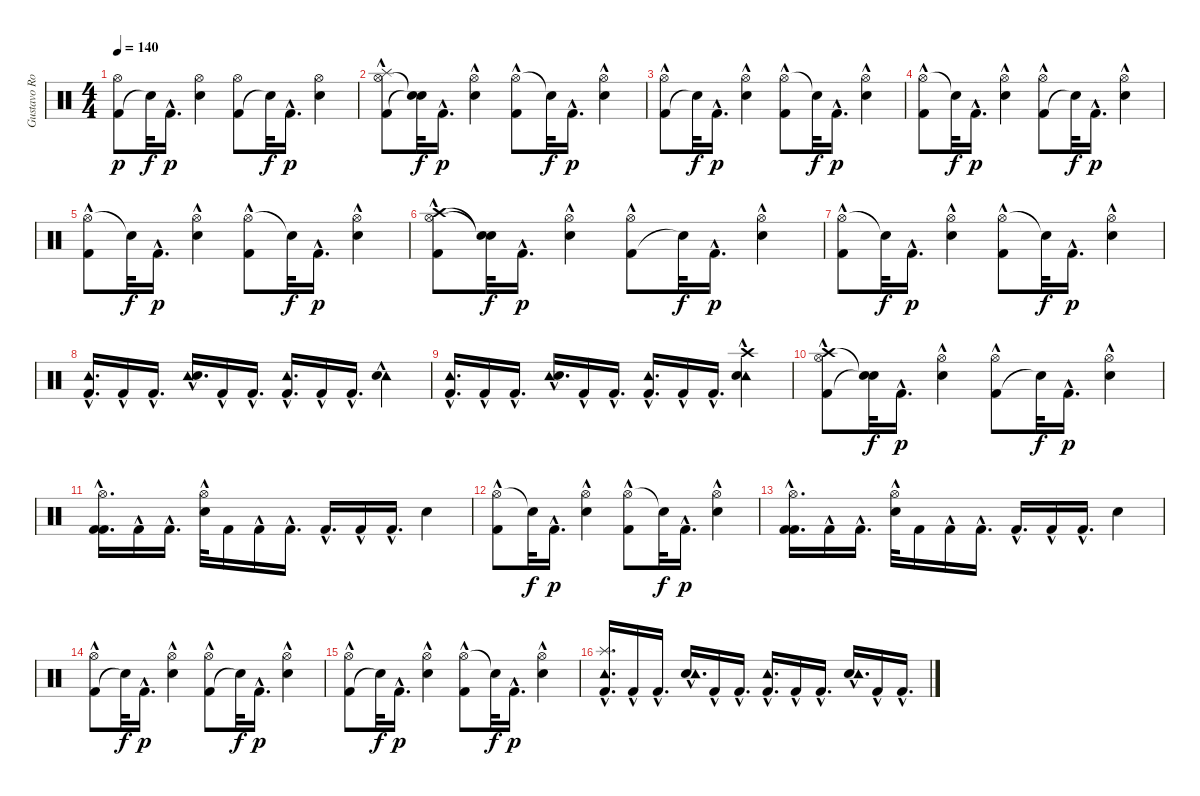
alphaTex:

\track ("Gustavo Rowek" "Gustavo Ro") {instrument percussion}
\staff {score}
\articulation defaults
\ts (4 4)
\tempo 140
\clef neutral
\ks c
("Kick (hit) 2" "Hi-Hat (open)").8{dy p} "Snare (hit)"{t}.32{dy f} "Kick (hit) 2"{hac}.16{d dy p} ("Snare (hit) 2" "Hi-Hat (open)").4 ("Kick (hit) 2" "Hi-Hat (open)").8 "Snare (hit)"{t}.32{dy f} "Kick (hit) 2"{hac}.16{d dy p} ("Snare (hit) 2" "Hi-Hat (open)").4 |
("Hi-Hat (open)" "Kick (hit) 2"{hac} "Splash (hit)").8 ("Snare (hit)"{t} "Snare (hit)"{t}).32{dy f} "Kick (hit) 2"{hac}.16{d dy p} ("Hi-Hat (open)" "Snare (hit) 2"{hac}).4 ("Hi-Hat (open)" "Kick (hit) 2"{hac}).8 "Snare (hit)"{t}.32{dy f} "Kick (hit) 2"{hac}.16{d dy p} ("Hi-Hat (open)" "Snare (hit) 2"{hac}).4 |
("Kick (hit) 2"{hac} "Hi-Hat (open)").8 "Snare (hit)"{t}.32{dy f} "Kick (hit) 2"{hac}.16{d dy p} ("Snare (hit) 2"{hac} "Hi-Hat (open)").4 ("Hi-Hat (open)" "Kick (hit) 2"{hac}).8 "Snare (hit)"{t}.32{dy f} "Kick (hit) 2"{hac}.16{d dy p} ("Snare (hit) 2"{hac} "Hi-Hat (open)").4 |
("Hi-Hat (open)" "Kick (hit) 2"{hac}).8 "Snare (hit)"{t}.32{dy f} "Kick (hit) 2"{hac}.16{d dy p} ("Hi-Hat (open)" "Snare (hit) 2"{hac}).4 ("Kick (hit) 2"{hac} "Hi-Hat (open)").8 "Snare (hit)"{t}.32{dy f} "Kick (hit) 2"{hac}.16{d dy p} ("Hi-Hat (open)" "Snare (hit) 2"{hac}).4 |
("Hi-Hat (open)" "Kick (hit) 2"{hac}).8 "Snare (hit)"{t}.32{dy f} "Kick (hit) 2"{hac}.16{d dy p} ("Hi-Hat (open)" "Snare (hit) 2"{hac}).4 ("Hi-Hat (open)" "Kick (hit) 2"{hac}).8 "Snare (hit)"{t}.32{dy f} "Kick (hit) 2"{hac}.16{d dy p} ("Hi-Hat (open)" "Snare (hit) 2"{hac}).4 |
("Hi-Hat (open)" "Crash high (hit)" "Kick (hit) 2"{hac}).8 ("Snare (hit)"{t} "Snare (hit)"{t}).32{dy f} "Kick (hit) 2"{hac}.16{d dy p} ("Snare (hit) 2"{hac} "Hi-Hat (open)").4 ("Kick (hit) 2"{hac} "Hi-Hat (open)").8 "Snare (hit)"{t}.32{dy f} "Kick (hit) 2"{hac}.16{d dy p} ("Snare (hit) 2"{hac} "Hi-Hat (open)").4 |
("Hi-Hat (open)" "Kick (hit) 2"{hac}).8 "Snare (hit)"{t}.32{dy f} "Kick (hit) 2"{hac}.16{d dy p} ("Snare (hit) 2"{hac} "Hi-Hat (open)").4 ("Hi-Hat (open)" "Kick (hit) 2"{hac}).8 "Snare (hit)"{t}.32{dy f} "Kick (hit) 2"{hac}.16{d dy p} ("Hi-Hat (open)" "Snare (hit) 2"{hac}).4 |
("Kick (hit) 2"{hac} "Tambourine (hit)").16{d} "Kick (hit) 2"{hac}.16 "Kick (hit) 2"{hac}.16{d} ("Tambourine (hit)" "Snare (hit) 2"{hac}).16{d} "Kick (hit) 2"{hac}.16 "Kick (hit) 2"{hac}.16{d} ("Kick (hit) 2"{hac} "Tambourine (hit)").16{d} "Kick (hit) 2"{hac}.16 "Kick (hit) 2"{hac}.16{d} ("Tambourine (hit)" "Snare (hit) 2"{hac}).4 |
("Tambourine (hit)" "Kick (hit) 2"{hac}).16{d} "Kick (hit) 2"{hac}.16 "Kick (hit) 2"{hac}.16{d} ("Tambourine (hit)" "Snare (hit) 2"{hac}).16{d} "Kick (hit) 2"{hac}.16 "Kick (hit) 2"{hac}.16{d} ("Tambourine (hit)" "Kick (hit) 2"{hac}).16{d} "Kick (hit) 2"{hac}.16 "Kick (hit) 2"{hac}.16{d} ("Crash high (hit)" "Tambourine (hit)" "Snare (hit) 2"{hac}).4 |
("Crash high (hit)" "Kick (hit) 2"{hac} "Hi-Hat (open)").8 ("Snare (hit)"{t} "Snare (hit)"{t}).32{dy f} "Kick (hit) 2"{hac}.16{d dy p} ("Snare (hit) 2"{hac} "Hi-Hat (open)").4 ("Kick (hit) 2"{hac} "Hi-Hat (open)").8 "Snare (hit)"{t}.32{dy f} "Kick (hit) 2"{hac}.16{d dy p} ("Snare (hit) 2"{hac} "Hi-Hat (open)").4 |
("Kick (hit) 2"{hac} "Kick (hit) 2"{hac} "Hi-Hat (open)").16{d} "Kick (hit) 2"{hac}.16 "Kick (hit) 2"{hac}.16{d} ("Hi-Hat (open)" "Snare (hit) 2"{hac}).32 "Kick (hit) 2".16 "Kick (hit) 2"{hac}.16 "Kick (hit) 2"{hac}.16{d} "Kick (hit) 2"{hac}.16{d} "Kick (hit) 2"{hac}.16 "Kick (hit) 2"{hac}.16{d} "Snare (hit) 2".4 |
("Hi-Hat (open)" "Kick (hit) 2"{hac}).8 "Snare (hit)"{t}.32{dy f} "Kick (hit) 2"{hac}.16{d dy p} ("Hi-Hat (open)" "Snare (hit) 2"{hac}).4 ("Hi-Hat (open)" "Kick (hit) 2"{hac}).8 "Snare (hit)"{t}.32{dy f} "Kick (hit) 2"{hac}.16{d dy p} ("Hi-Hat (open)" "Snare (hit) 2"{hac}).4 |
("Kick (hit) 2"{hac} "Hi-Hat (open)" "Kick (hit) 2"{hac}).16{d} "Kick (hit) 2"{hac}.16 "Kick (hit) 2"{hac}.16{d} ("Hi-Hat (open)" "Snare (hit) 2"{hac}).32 "Kick (hit) 2".16 "Kick (hit) 2"{hac}.16 "Kick (hit) 2"{hac}.16{d} "Kick (hit) 2"{hac}.16{d} "Kick (hit) 2"{hac}.16 "Kick (hit) 2"{hac}.16{d} "Snare (hit) 2".4 |
("Kick (hit) 2"{hac} "Hi-Hat (open)").8 "Snare (hit)"{t}.32{dy f} "Kick (hit) 2"{hac}.16{d dy p} ("Snare (hit) 2"{hac} "Hi-Hat (open)").4 ("Kick (hit) 2"{hac} "Hi-Hat (open)").8 "Snare (hit)"{t}.32{dy f} "Kick (hit) 2"{hac}.16{d dy p} ("Snare (hit) 2"{hac} "Hi-Hat (open)").4 |
("Kick (hit) 2"{hac} "Hi-Hat (open)").8 "Snare (hit)"{t}.32{dy f} "Kick (hit) 2"{hac}.16{d dy p} ("Snare (hit) 2"{hac} "Hi-Hat (open)").4 ("Hi-Hat (open)" "Kick (hit) 2"{hac}).8 "Snare (hit)"{t}.32{dy f} "Kick (hit) 2"{hac}.16{d dy p} ("Hi-Hat (open)" "Snare (hit) 2"{hac}).4 |
("Tambourine (hit)" "Kick (hit) 2"{hac} "Splash (hit)").16{d} "Kick (hit) 2"{hac}.16 "Kick (hit) 2"{hac}.16{d} ("Snare (hit) 2"{hac} "Tambourine (hit)").16{d} "Kick (hit) 2"{hac}.16 "Kick (hit) 2"{hac}.16{d} ("Kick (hit) 2"{hac} "Tambourine (hit)").16{d} "Kick (hit) 2"{hac}.16 "Kick (hit) 2"{hac}.16{d} ("Snare (hit) 2"{hac} "Tambourine (hit)").16{d} "Kick (hit) 2"{hac}.16 "Kick (hit) 2"{hac}.16{d}
